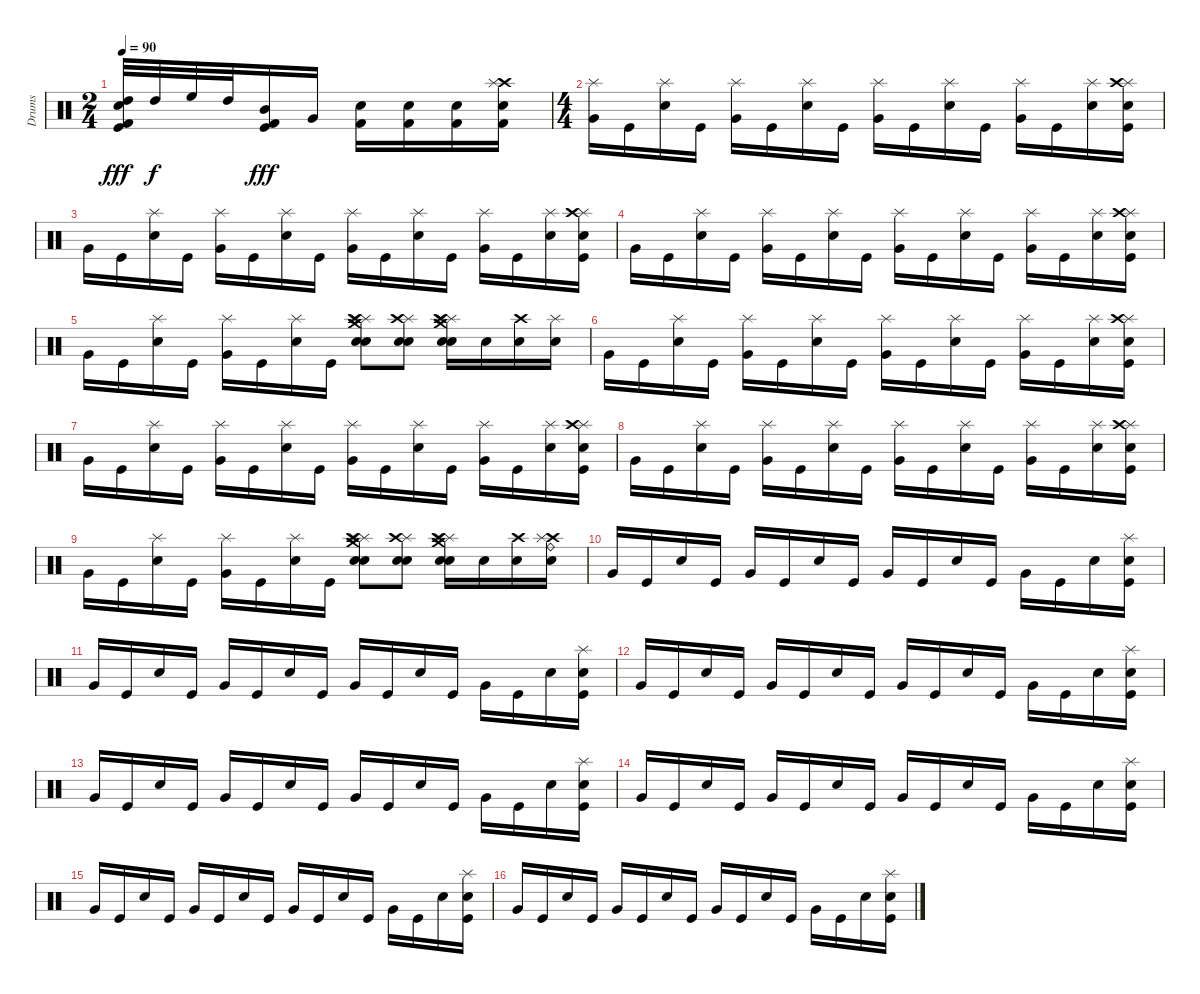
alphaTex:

\track ("Drums" "Drums") {instrument percussion}
\staff {score}
\articulation defaults
\ts (2 4)
\tempo 90
\clef neutral
\ks c
("Kick (hit)" "Kick (hit) 2" "Electric Snare (hit)" "High Tom (hit)").32{dy fff} "High Tom (hit)".32{dy f} "High Floor Tom (hit)".32 "High Tom (hit)".32 ("Kick (hit)" "Kick (hit) 2" "Mid Tom (hit)").16{dy fff} "Very Low Tom (hit)".16 ("Kick (hit) 2" "Electric Snare (hit)").16 ("Kick (hit) 2" "Electric Snare (hit)").16 ("Kick (hit) 2" "Electric Snare (hit)").16 ("Kick (hit) 2" "Electric Snare (hit)" "Crash high (hit)" "Splash (hit)").16 |
\ts (4 4)
("Very Low Tom (hit)" "Splash (hit)").16 "Kick (hit)".16 ("Electric Snare (hit)" "Splash (hit)").16 "Kick (hit)".16 ("Very Low Tom (hit)" "Splash (hit)").16 "Kick (hit)".16 ("Electric Snare (hit)" "Splash (hit)").16 "Kick (hit)".16 ("Very Low Tom (hit)" "Splash (hit)").16 "Kick (hit)".16 ("Electric Snare (hit)" "Splash (hit)").16 "Kick (hit)".16 ("Very Low Tom (hit)" "Splash (hit)").16 "Kick (hit)".16 ("Electric Snare (hit)" "Splash (hit)").16 ("Kick (hit)" "Electric Snare (hit)" "Splash (hit)" "Crash high (hit)").16 |
"Very Low Tom (hit)".16 "Kick (hit)".16 ("Electric Snare (hit)" "Splash (hit)").16 "Kick (hit)".16 ("Very Low Tom (hit)" "Splash (hit)").16 "Kick (hit)".16 ("Electric Snare (hit)" "Splash (hit)").16 "Kick (hit)".16 ("Very Low Tom (hit)" "Splash (hit)").16 "Kick (hit)".16 ("Electric Snare (hit)" "Splash (hit)").16 "Kick (hit)".16 ("Very Low Tom (hit)" "Splash (hit)").16 "Kick (hit)".16 ("Electric Snare (hit)" "Splash (hit)").16 ("Kick (hit)" "Electric Snare (hit)" "Splash (hit)" "Crash high (hit)").16 |
"Very Low Tom (hit)".16 "Kick (hit)".16 ("Electric Snare (hit)" "Splash (hit)").16 "Kick (hit)".16 ("Very Low Tom (hit)" "Splash (hit)").16 "Kick (hit)".16 ("Electric Snare (hit)" "Splash (hit)").16 "Kick (hit)".16 ("Very Low Tom (hit)" "Splash (hit)").16 "Kick (hit)".16 ("Electric Snare (hit)" "Splash (hit)").16 "Kick (hit)".16 ("Very Low Tom (hit)" "Splash (hit)").16 "Kick (hit)".16 ("Electric Snare (hit)" "Splash (hit)").16 ("Kick (hit)" "Electric Snare (hit)" "Splash (hit)" "Crash high (hit)").16 |
"Very Low Tom (hit)".16 "Kick (hit)".16 ("Electric Snare (hit)" "Splash (hit)").16 "Kick (hit)".16 ("Very Low Tom (hit)" "Splash (hit)").16 "Kick (hit)".16 ("Electric Snare (hit)" "Splash (hit)").16 "Kick (hit)".16 ("Snare (hit) 2" "Electric Snare (hit)" "Splash (hit)" "Crash high (hit)" "Splash (hit)" "Crash medium (hit)").8 ("Snare (hit) 2" "Electric Snare (hit)" "Splash (hit)" "Crash high (hit)").8 ("Snare (hit) 2" "Electric Snare (hit)" "Splash (hit)" "Crash high (hit)" "Splash (hit)" "Crash medium (hit)").16 "Electric Snare (hit)".16 ("Electric Snare (hit)" "Crash high (hit)").16 ("Electric Snare (hit)" "Splash (hit)").16 |
"Very Low Tom (hit)".16 "Kick (hit)".16 ("Electric Snare (hit)" "Splash (hit)").16 "Kick (hit)".16 ("Very Low Tom (hit)" "Splash (hit)").16 "Kick (hit)".16 ("Electric Snare (hit)" "Splash (hit)").16 "Kick (hit)".16 ("Very Low Tom (hit)" "Splash (hit)").16 "Kick (hit)".16 ("Electric Snare (hit)" "Splash (hit)").16 "Kick (hit)".16 ("Very Low Tom (hit)" "Splash (hit)").16 "Kick (hit)".16 ("Electric Snare (hit)" "Splash (hit)").16 ("Kick (hit)" "Electric Snare (hit)" "Splash (hit)" "Crash high (hit)").16 |
"Very Low Tom (hit)".16 "Kick (hit)".16 ("Electric Snare (hit)" "Splash (hit)").16 "Kick (hit)".16 ("Very Low Tom (hit)" "Splash (hit)").16 "Kick (hit)".16 ("Electric Snare (hit)" "Splash (hit)").16 "Kick (hit)".16 ("Very Low Tom (hit)" "Splash (hit)").16 "Kick (hit)".16 ("Electric Snare (hit)" "Splash (hit)").16 "Kick (hit)".16 ("Very Low Tom (hit)" "Splash (hit)").16 "Kick (hit)".16 ("Electric Snare (hit)" "Splash (hit)").16 ("Kick (hit)" "Electric Snare (hit)" "Splash (hit)" "Crash high (hit)").16 |
"Very Low Tom (hit)".16 "Kick (hit)".16 ("Electric Snare (hit)" "Splash (hit)").16 "Kick (hit)".16 ("Very Low Tom (hit)" "Splash (hit)").16 "Kick (hit)".16 ("Electric Snare (hit)" "Splash (hit)").16 "Kick (hit)".16 ("Very Low Tom (hit)" "Splash (hit)").16 "Kick (hit)".16 ("Electric Snare (hit)" "Splash (hit)").16 "Kick (hit)".16 ("Very Low Tom (hit)" "Splash (hit)").16 "Kick (hit)".16 ("Electric Snare (hit)" "Splash (hit)").16 ("Kick (hit)" "Electric Snare (hit)" "Splash (hit)" "Crash high (hit)").16 |
"Very Low Tom (hit)".16 "Kick (hit)".16 ("Electric Snare (hit)" "Splash (hit)").16 "Kick (hit)".16 ("Very Low Tom (hit)" "Splash (hit)").16 "Kick (hit)".16 ("Electric Snare (hit)" "Splash (hit)").16 "Kick (hit)".16 ("Snare (hit) 2" "Electric Snare (hit)" "Splash (hit)" "Crash high (hit)" "Splash (hit)" "Crash medium (hit)").8 ("Snare (hit) 2" "Electric Snare (hit)" "Splash (hit)" "Crash high (hit)").8 ("Snare (hit) 2" "Electric Snare (hit)" "Splash (hit)" "Crash high (hit)" "Splash (hit)" "Crash medium (hit)").16 "Electric Snare (hit)".16 ("Electric Snare (hit)" "Crash high (hit)").16 ("Electric Snare (hit)" "Crash high (hit)" "Ride (bell)" "Splash (hit)").16 |
"Very Low Tom (hit)".16 "Kick (hit)".16 "Electric Snare (hit)".16 "Kick (hit)".16 "Very Low Tom (hit)".16 "Kick (hit)".16 "Electric Snare (hit)".16 "Kick (hit)".16 "Very Low Tom (hit)".16 "Kick (hit)".16 "Electric Snare (hit)".16 "Kick (hit)".16 "Very Low Tom (hit)".16 "Kick (hit)".16 "Electric Snare (hit)".16 ("Kick (hit)" "Electric Snare (hit)" "Splash (hit)").16 |
"Very Low Tom (hit)".16 "Kick (hit)".16 "Electric Snare (hit)".16 "Kick (hit)".16 "Very Low Tom (hit)".16 "Kick (hit)".16 "Electric Snare (hit)".16 "Kick (hit)".16 "Very Low Tom (hit)".16 "Kick (hit)".16 "Electric Snare (hit)".16 "Kick (hit)".16 "Very Low Tom (hit)".16 "Kick (hit)".16 "Electric Snare (hit)".16 ("Kick (hit)" "Electric Snare (hit)" "Splash (hit)").16 |
"Very Low Tom (hit)".16 "Kick (hit)".16 "Electric Snare (hit)".16 "Kick (hit)".16 "Very Low Tom (hit)".16 "Kick (hit)".16 "Electric Snare (hit)".16 "Kick (hit)".16 "Very Low Tom (hit)".16 "Kick (hit)".16 "Electric Snare (hit)".16 "Kick (hit)".16 "Very Low Tom (hit)".16 "Kick (hit)".16 "Electric Snare (hit)".16 ("Kick (hit)" "Electric Snare (hit)" "Splash (hit)").16 |
"Very Low Tom (hit)".16 "Kick (hit)".16 "Electric Snare (hit)".16 "Kick (hit)".16 "Very Low Tom (hit)".16 "Kick (hit)".16 "Electric Snare (hit)".16 "Kick (hit)".16 "Very Low Tom (hit)".16 "Kick (hit)".16 "Electric Snare (hit)".16 "Kick (hit)".16 "Very Low Tom (hit)".16 "Kick (hit)".16 "Electric Snare (hit)".16 ("Kick (hit)" "Electric Snare (hit)" "Splash (hit)").16 |
"Very Low Tom (hit)".16 "Kick (hit)".16 "Electric Snare (hit)".16 "Kick (hit)".16 "Very Low Tom (hit)".16 "Kick (hit)".16 "Electric Snare (hit)".16 "Kick (hit)".16 "Very Low Tom (hit)".16 "Kick (hit)".16 "Electric Snare (hit)".16 "Kick (hit)".16 "Very Low Tom (hit)".16 "Kick (hit)".16 "Electric Snare (hit)".16 ("Kick (hit)" "Electric Snare (hit)" "Splash (hit)").16 |
"Very Low Tom (hit)".16 "Kick (hit)".16 "Electric Snare (hit)".16 "Kick (hit)".16 "Very Low Tom (hit)".16 "Kick (hit)".16 "Electric Snare (hit)".16 "Kick (hit)".16 "Very Low Tom (hit)".16 "Kick (hit)".16 "Electric Snare (hit)".16 "Kick (hit)".16 "Very Low Tom (hit)".16 "Kick (hit)".16 "Electric Snare (hit)".16 ("Kick (hit)" "Electric Snare (hit)" "Splash (hit)").16 |
"Very Low Tom (hit)".16 "Kick (hit)".16 "Electric Snare (hit)".16 "Kick (hit)".16 "Very Low Tom (hit)".16 "Kick (hit)".16 "Electric Snare (hit)".16 "Kick (hit)".16 "Very Low Tom (hit)".16 "Kick (hit)".16 "Electric Snare (hit)".16 "Kick (hit)".16 "Very Low Tom (hit)".16 "Kick (hit)".16 "Electric Snare (hit)".16 ("Kick (hit)" "Electric Snare (hit)" "Splash (hit)").16
